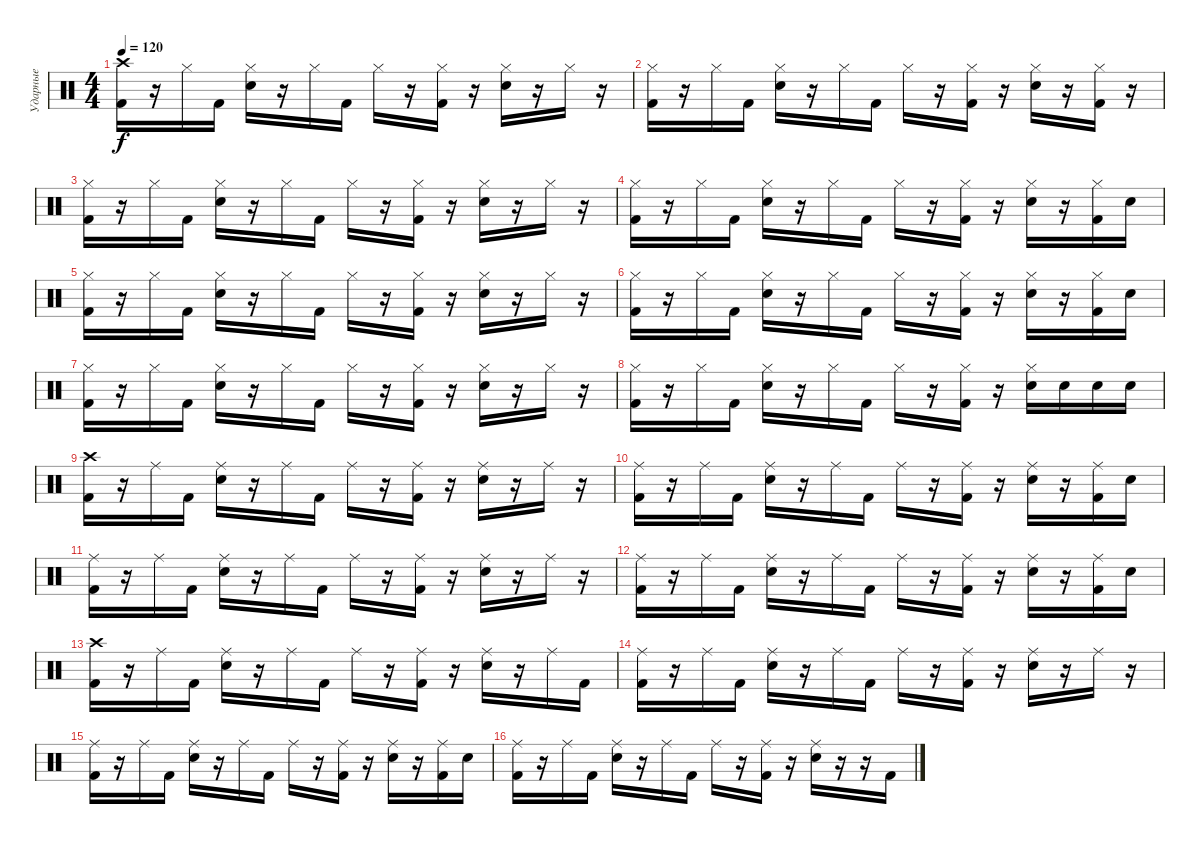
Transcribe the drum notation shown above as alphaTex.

\track ("Ударные" "Ударные") {instrument percussion}
\staff {score}
\articulation defaults
\ts (4 4)
\tempo 120
\clef neutral
\ks c
("Crash high (hit)" "Kick (hit) 2").16{dy f} r.16 "Hi-Hat (closed)".16 "Kick (hit) 2".16 ("Hi-Hat (closed)" "Electric Snare (hit)").16 r.16 "Hi-Hat (closed)".16 "Kick (hit) 2".16 "Hi-Hat (closed)".16 r.16 ("Hi-Hat (closed)" "Kick (hit) 2").16 r.16 ("Hi-Hat (closed)" "Electric Snare (hit)").16 r.16 "Hi-Hat (closed)".16 r.16 |
("Hi-Hat (closed)" "Kick (hit) 2").16 r.16 "Hi-Hat (closed)".16 "Kick (hit) 2".16 ("Hi-Hat (closed)" "Electric Snare (hit)").16 r.16 "Hi-Hat (closed)".16 "Kick (hit) 2".16 "Hi-Hat (closed)".16 r.16 ("Hi-Hat (closed)" "Kick (hit) 2").16 r.16 ("Hi-Hat (closed)" "Electric Snare (hit)").16 r.16 ("Hi-Hat (closed)" "Kick (hit) 2").16 r.16 |
("Hi-Hat (closed)" "Kick (hit) 2").16 r.16 "Hi-Hat (closed)".16 "Kick (hit) 2".16 ("Hi-Hat (closed)" "Electric Snare (hit)").16 r.16 "Hi-Hat (closed)".16 "Kick (hit) 2".16 "Hi-Hat (closed)".16 r.16 ("Hi-Hat (closed)" "Kick (hit) 2").16 r.16 ("Hi-Hat (closed)" "Electric Snare (hit)").16 r.16 "Hi-Hat (closed)".16 r.16 |
("Hi-Hat (closed)" "Kick (hit) 2").16 r.16 "Hi-Hat (closed)".16 "Kick (hit) 2".16 ("Hi-Hat (closed)" "Electric Snare (hit)").16 r.16 "Hi-Hat (closed)".16 "Kick (hit) 2".16 "Hi-Hat (closed)".16 r.16 ("Hi-Hat (closed)" "Kick (hit) 2").16 r.16 ("Hi-Hat (closed)" "Electric Snare (hit)").16 r.16 ("Hi-Hat (closed)" "Kick (hit) 2").16 "Electric Snare (hit)".16 |
("Hi-Hat (closed)" "Kick (hit) 2").16 r.16 "Hi-Hat (closed)".16 "Kick (hit) 2".16 ("Hi-Hat (closed)" "Electric Snare (hit)").16 r.16 "Hi-Hat (closed)".16 "Kick (hit) 2".16 "Hi-Hat (closed)".16 r.16 ("Hi-Hat (closed)" "Kick (hit) 2").16 r.16 ("Hi-Hat (closed)" "Electric Snare (hit)").16 r.16 "Hi-Hat (closed)".16 r.16 |
("Hi-Hat (closed)" "Kick (hit) 2").16 r.16 "Hi-Hat (closed)".16 "Kick (hit) 2".16 ("Hi-Hat (closed)" "Electric Snare (hit)").16 r.16 "Hi-Hat (closed)".16 "Kick (hit) 2".16 "Hi-Hat (closed)".16 r.16 ("Hi-Hat (closed)" "Kick (hit) 2").16 r.16 ("Hi-Hat (closed)" "Electric Snare (hit)").16 r.16 ("Hi-Hat (closed)" "Kick (hit) 2").16 "Electric Snare (hit)".16 |
("Hi-Hat (closed)" "Kick (hit) 2").16 r.16 "Hi-Hat (closed)".16 "Kick (hit) 2".16 ("Hi-Hat (closed)" "Electric Snare (hit)").16 r.16 "Hi-Hat (closed)".16 "Kick (hit) 2".16 "Hi-Hat (closed)".16 r.16 ("Hi-Hat (closed)" "Kick (hit) 2").16 r.16 ("Hi-Hat (closed)" "Electric Snare (hit)").16 r.16 "Hi-Hat (closed)".16 r.16 |
("Hi-Hat (closed)" "Kick (hit) 2").16 r.16 "Hi-Hat (closed)".16 "Kick (hit) 2".16 ("Hi-Hat (closed)" "Electric Snare (hit)").16 r.16 "Hi-Hat (closed)".16 "Kick (hit) 2".16 "Hi-Hat (closed)".16 r.16 ("Hi-Hat (closed)" "Kick (hit) 2").16 r.16 ("Hi-Hat (closed)" "Electric Snare (hit)").16 "Electric Snare (hit)".16 "Electric Snare (hit)".16 "Electric Snare (hit)".16 |
("Crash high (hit)" "Kick (hit) 2").16 r.16 "Ride (middle)".16 "Kick (hit) 2".16 ("Ride (middle)" "Electric Snare (hit)").16 r.16 "Ride (middle)".16 "Kick (hit) 2".16 "Ride (middle)".16 r.16 ("Ride (middle)" "Kick (hit) 2").16 r.16 ("Ride (middle)" "Electric Snare (hit)").16 r.16 "Ride (middle)".16 r.16 |
("Ride (middle)" "Kick (hit) 2").16 r.16 "Ride (middle)".16 "Kick (hit) 2".16 ("Ride (middle)" "Electric Snare (hit)").16 r.16 "Ride (middle)".16 "Kick (hit) 2".16 "Ride (middle)".16 r.16 ("Ride (middle)" "Kick (hit) 2").16 r.16 ("Ride (middle)" "Electric Snare (hit)").16 r.16 ("Ride (middle)" "Kick (hit) 2").16 "Electric Snare (hit)".16 |
("Ride (middle)" "Kick (hit) 2").16 r.16 "Ride (middle)".16 "Kick (hit) 2".16 ("Ride (middle)" "Electric Snare (hit)").16 r.16 "Ride (middle)".16 "Kick (hit) 2".16 "Ride (middle)".16 r.16 ("Ride (middle)" "Kick (hit) 2").16 r.16 ("Ride (middle)" "Electric Snare (hit)").16 r.16 "Ride (middle)".16 r.16 |
("Ride (middle)" "Kick (hit) 2").16 r.16 "Ride (middle)".16 "Kick (hit) 2".16 ("Ride (middle)" "Electric Snare (hit)").16 r.16 "Ride (middle)".16 "Kick (hit) 2".16 "Ride (middle)".16 r.16 ("Ride (middle)" "Kick (hit) 2").16 r.16 ("Ride (middle)" "Electric Snare (hit)").16 r.16 ("Ride (middle)" "Kick (hit) 2").16 "Electric Snare (hit)".16 |
("Crash high (hit)" "Kick (hit) 2").16 r.16 "Ride (middle)".16 "Kick (hit) 2".16 ("Ride (middle)" "Electric Snare (hit)").16 r.16 "Ride (middle)".16 "Kick (hit) 2".16 "Ride (middle)".16 r.16 ("Ride (middle)" "Kick (hit) 2").16 r.16 ("Ride (middle)" "Electric Snare (hit)").16 r.16 "Ride (middle)".16 "Kick (hit) 2".16 |
("Ride (middle)" "Kick (hit) 2").16 r.16 "Ride (middle)".16 "Kick (hit) 2".16 ("Ride (middle)" "Electric Snare (hit)").16 r.16 "Ride (middle)".16 "Kick (hit) 2".16 "Ride (middle)".16 r.16 ("Ride (middle)" "Kick (hit) 2").16 r.16 ("Ride (middle)" "Electric Snare (hit)").16 r.16 "Ride (middle)".16 r.16 |
("Ride (middle)" "Kick (hit) 2").16 r.16 "Ride (middle)".16 "Kick (hit) 2".16 ("Ride (middle)" "Electric Snare (hit)").16 r.16 "Ride (middle)".16 "Kick (hit) 2".16 "Ride (middle)".16 r.16 ("Ride (middle)" "Kick (hit) 2").16 r.16 ("Ride (middle)" "Electric Snare (hit)").16 r.16 ("Ride (middle)" "Kick (hit) 2").16 "Electric Snare (hit)".16 |
("Ride (middle)" "Kick (hit) 2").16 r.16 "Ride (middle)".16 "Kick (hit) 2".16 ("Ride (middle)" "Electric Snare (hit)").16 r.16 "Ride (middle)".16 "Kick (hit) 2".16 "Ride (middle)".16 r.16 ("Ride (middle)" "Kick (hit) 2").16 r.16 ("Ride (middle)" "Electric Snare (hit)").16 r.16 r.16 "Kick (hit) 2".16
